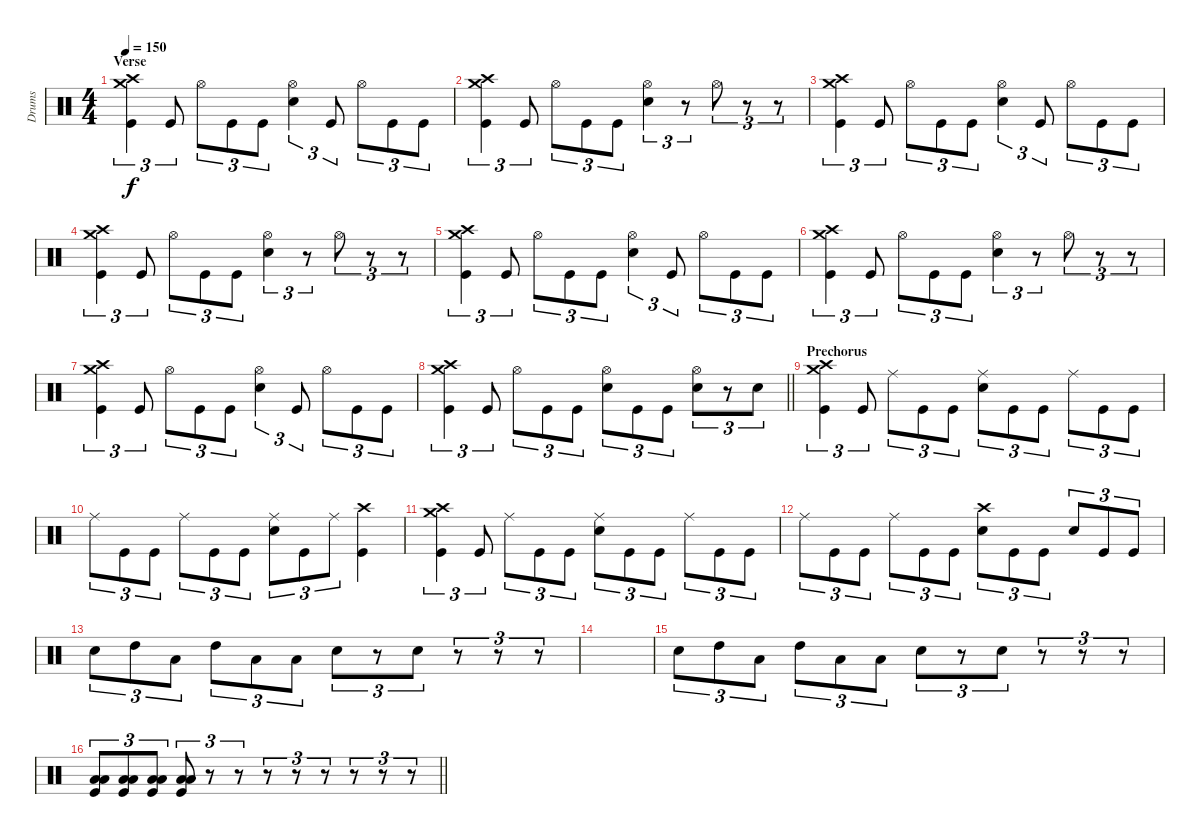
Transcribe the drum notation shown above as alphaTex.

\track ("Drums" "Drums") {instrument percussion}
\staff {score}
\articulation defaults
\ts (4 4)
\section ("" "Verse")
\tempo 150
\clef neutral
\ks c
("Crash high (hit)" "Crash medium (hit)" "Kick (hit)").4{tu (3 2) dy f} "Kick (hit)".8{tu (3 2)} "Hi-Hat (open)".8{tu (3 2)} "Kick (hit)".8{tu (3 2)} "Kick (hit)".8{tu (3 2)} ("Hi-Hat (open)" "Electric Snare (hit)").4{tu (3 2)} "Kick (hit)".8{tu (3 2)} "Hi-Hat (open)".8{tu (3 2)} "Kick (hit)".8{tu (3 2)} "Kick (hit)".8{tu (3 2)} |
("Crash high (hit)" "Crash medium (hit)" "Kick (hit)").4{tu (3 2)} "Kick (hit)".8{tu (3 2)} "Hi-Hat (open)".8{tu (3 2)} "Kick (hit)".8{tu (3 2)} "Kick (hit)".8{tu (3 2)} ("Hi-Hat (open)" "Electric Snare (hit)").4{tu (3 2)} r.8{tu (3 2)} "Hi-Hat (open)".8{tu (3 2)} r.8{tu (3 2)} r.8{tu (3 2)} |
("Crash high (hit)" "Crash medium (hit)" "Kick (hit)").4{tu (3 2)} "Kick (hit)".8{tu (3 2)} "Hi-Hat (open)".8{tu (3 2)} "Kick (hit)".8{tu (3 2)} "Kick (hit)".8{tu (3 2)} ("Hi-Hat (open)" "Electric Snare (hit)").4{tu (3 2)} "Kick (hit)".8{tu (3 2)} "Hi-Hat (open)".8{tu (3 2)} "Kick (hit)".8{tu (3 2)} "Kick (hit)".8{tu (3 2)} |
("Crash high (hit)" "Crash medium (hit)" "Kick (hit)").4{tu (3 2)} "Kick (hit)".8{tu (3 2)} "Hi-Hat (open)".8{tu (3 2)} "Kick (hit)".8{tu (3 2)} "Kick (hit)".8{tu (3 2)} ("Hi-Hat (open)" "Electric Snare (hit)").4{tu (3 2)} r.8{tu (3 2)} "Hi-Hat (open)".8{tu (3 2)} r.8{tu (3 2)} r.8{tu (3 2)} |
("Crash high (hit)" "Crash medium (hit)" "Kick (hit)").4{tu (3 2)} "Kick (hit)".8{tu (3 2)} "Hi-Hat (open)".8{tu (3 2)} "Kick (hit)".8{tu (3 2)} "Kick (hit)".8{tu (3 2)} ("Hi-Hat (open)" "Electric Snare (hit)").4{tu (3 2)} "Kick (hit)".8{tu (3 2)} "Hi-Hat (open)".8{tu (3 2)} "Kick (hit)".8{tu (3 2)} "Kick (hit)".8{tu (3 2)} |
("Crash high (hit)" "Crash medium (hit)" "Kick (hit)").4{tu (3 2)} "Kick (hit)".8{tu (3 2)} "Hi-Hat (open)".8{tu (3 2)} "Kick (hit)".8{tu (3 2)} "Kick (hit)".8{tu (3 2)} ("Hi-Hat (open)" "Electric Snare (hit)").4{tu (3 2)} r.8{tu (3 2)} "Hi-Hat (open)".8{tu (3 2)} r.8{tu (3 2)} r.8{tu (3 2)} |
("Crash high (hit)" "Crash medium (hit)" "Kick (hit)").4{tu (3 2)} "Kick (hit)".8{tu (3 2)} "Hi-Hat (open)".8{tu (3 2)} "Kick (hit)".8{tu (3 2)} "Kick (hit)".8{tu (3 2)} ("Hi-Hat (open)" "Electric Snare (hit)").4{tu (3 2)} "Kick (hit)".8{tu (3 2)} "Hi-Hat (open)".8{tu (3 2)} "Kick (hit)".8{tu (3 2)} "Kick (hit)".8{tu (3 2)} |
\barLineRight lightlight
("Crash high (hit)" "Crash medium (hit)" "Kick (hit)").4{tu (3 2)} "Kick (hit)".8{tu (3 2)} "Hi-Hat (open)".8{tu (3 2)} "Kick (hit)".8{tu (3 2)} "Kick (hit)".8{tu (3 2)} ("Hi-Hat (open)" "Electric Snare (hit)").8{tu (3 2)} "Kick (hit)".8{tu (3 2)} "Kick (hit)".8{tu (3 2)} ("Hi-Hat (open)" "Electric Snare (hit)").8{tu (3 2)} r.8{tu (3 2)} "Electric Snare (hit)".8{tu (3 2)} |
\section ("" "Prechorus")
("Crash high (hit)" "Crash medium (hit)" "Kick (hit)").4{tu (3 2)} "Kick (hit)".8{tu (3 2)} "Ride (middle)".8{tu (3 2)} "Kick (hit)".8{tu (3 2)} "Kick (hit)".8{tu (3 2)} ("Ride (middle)" "Electric Snare (hit)").8{tu (3 2)} "Kick (hit)".8{tu (3 2)} "Kick (hit)".8{tu (3 2)} "Ride (middle)".8{tu (3 2)} "Kick (hit)".8{tu (3 2)} "Kick (hit)".8{tu (3 2)} |
"Ride (middle)".8{tu (3 2)} "Kick (hit)".8{tu (3 2)} "Kick (hit)".8{tu (3 2)} "Ride (middle)".8{tu (3 2)} "Kick (hit)".8{tu (3 2)} "Kick (hit)".8{tu (3 2)} ("Ride (middle)" "Electric Snare (hit)").8{tu (3 2)} "Kick (hit)".8{tu (3 2)} "Ride (middle)".8{tu (3 2)} ("Crash high (hit)" "Kick (hit)").4 |
("Crash high (hit)" "Crash medium (hit)" "Kick (hit)").4{tu (3 2)} "Kick (hit)".8{tu (3 2)} "Ride (middle)".8{tu (3 2)} "Kick (hit)".8{tu (3 2)} "Kick (hit)".8{tu (3 2)} ("Ride (middle)" "Electric Snare (hit)").8{tu (3 2)} "Kick (hit)".8{tu (3 2)} "Kick (hit)".8{tu (3 2)} "Ride (middle)".8{tu (3 2)} "Kick (hit)".8{tu (3 2)} "Kick (hit)".8{tu (3 2)} |
"Ride (middle)".8{tu (3 2)} "Kick (hit)".8{tu (3 2)} "Kick (hit)".8{tu (3 2)} "Ride (middle)".8{tu (3 2)} "Kick (hit)".8{tu (3 2)} "Kick (hit)".8{tu (3 2)} ("Crash high (hit)" "Electric Snare (hit)").8{tu (3 2)} "Kick (hit)".8{tu (3 2)} "Kick (hit)".8{tu (3 2)} "Electric Snare (hit)".8{tu (3 2)} "Kick (hit)".8{tu (3 2)} "Kick (hit)".8{tu (3 2)} |
"Electric Snare (hit)".8{tu (3 2)} "High Tom (hit)".8{tu (3 2)} "Low Tom (hit)".8{tu (3 2)} "High Tom (hit)".8{tu (3 2)} "Low Tom (hit)".8{tu (3 2)} "Low Floor Tom (hit)".8{tu (3 2)} "Electric Snare (hit)".8{tu (3 2)} r.8{tu (3 2)} "Electric Snare (hit)".8{tu (3 2)} r.8{tu (3 2)} r.8{tu (3 2)} r.8{tu (3 2)} |
|
"Electric Snare (hit)".8{tu (3 2)} "High Tom (hit)".8{tu (3 2)} "Low Tom (hit)".8{tu (3 2)} "High Tom (hit)".8{tu (3 2)} "Low Tom (hit)".8{tu (3 2)} "Low Floor Tom (hit)".8{tu (3 2)} "Electric Snare (hit)".8{tu (3 2)} r.8{tu (3 2)} "Electric Snare (hit)".8{tu (3 2)} r.8{tu (3 2)} r.8{tu (3 2)} r.8{tu (3 2)} |
\barLineRight lightlight
("Low Tom (hit)" "Low Floor Tom (hit)" "Kick (hit)").8{tu (3 2)} ("Low Tom (hit)" "Low Floor Tom (hit)" "Kick (hit)").8{tu (3 2)} ("Low Tom (hit)" "Low Floor Tom (hit)" "Kick (hit)").8{tu (3 2)} ("Low Tom (hit)" "Low Floor Tom (hit)" "Kick (hit)").8{tu (3 2)} r.8{tu (3 2)} r.8{tu (3 2)} r.8{tu (3 2)} r.8{tu (3 2)} r.8{tu (3 2)} r.8{tu (3 2)} r.8{tu (3 2)} r.8{tu (3 2)}
